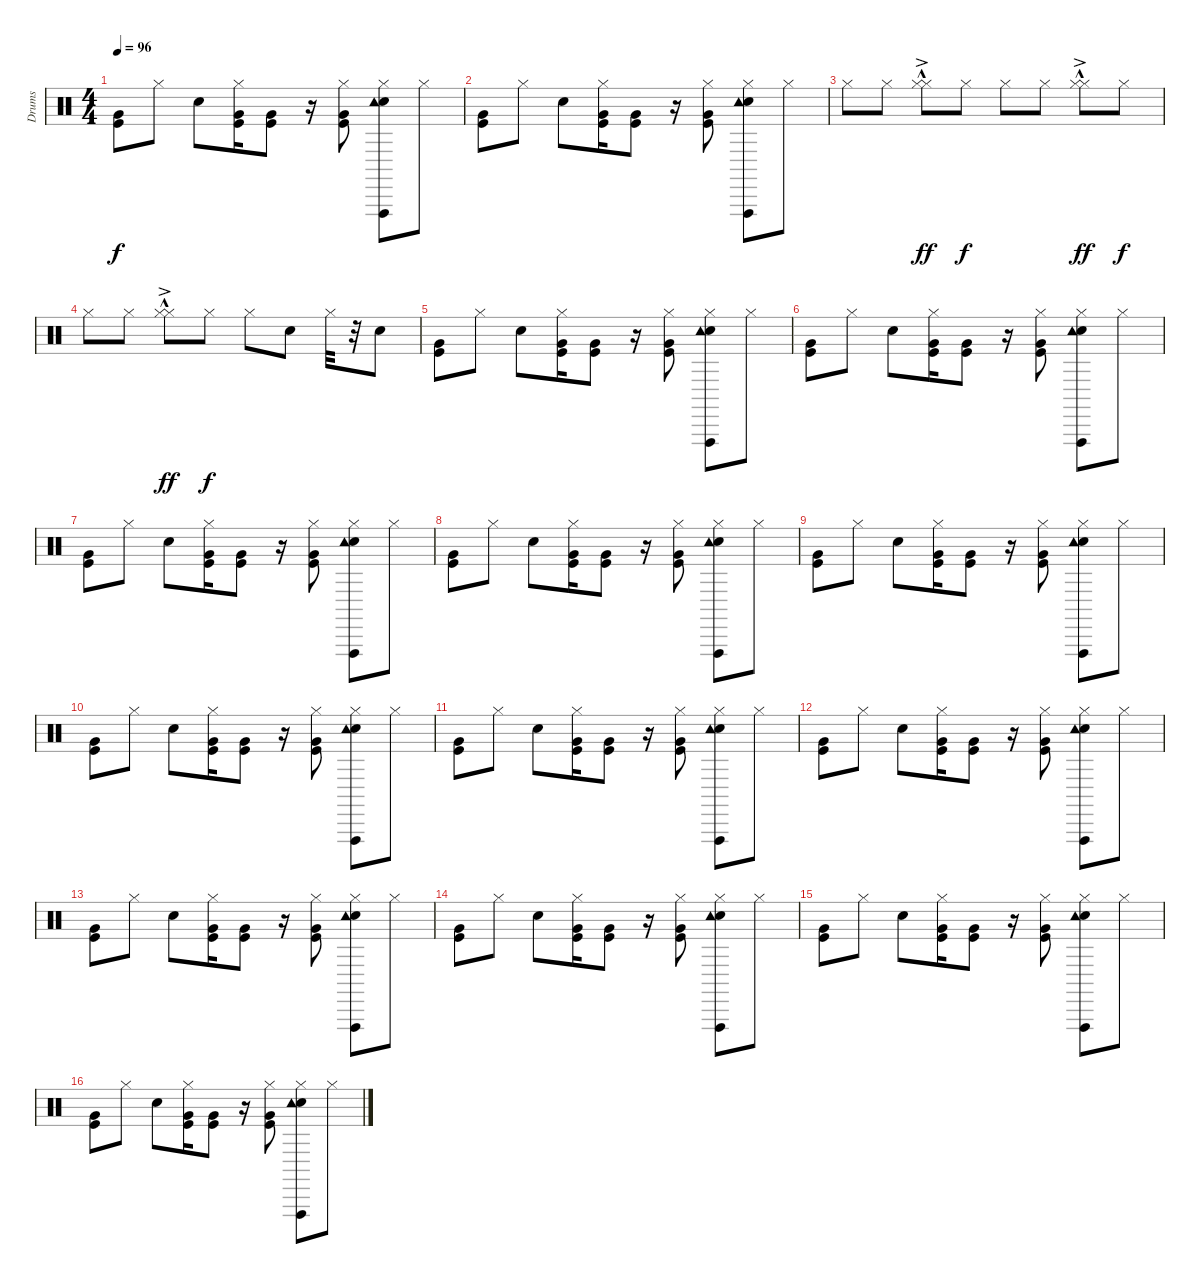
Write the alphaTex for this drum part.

\track ("Drums" "Drums") {instrument percussion}
\staff {score}
\articulation defaults
\ts (4 4)
\tempo 96
\clef neutral
\ks c
("Kick (hit)" "Very Low Tom (hit)").8{dy f} "Hi-Hat (closed)".8 "Snare (hit) 2".8 ("Hi-Hat (closed)" "Kick (hit)" "Very Low Tom (hit)").16 ("Kick (hit)" "Very Low Tom (hit)").8 r.16 ("Hi-Hat (closed)" "Kick (hit)" "Very Low Tom (hit)").8 ("Hi-Hat (closed)" "Vibraslap (hit)" "Snare (hit) 2" "Tambourine (hit)").8 "Hi-Hat (closed)".8 |
("Kick (hit)" "Very Low Tom (hit)").8 "Hi-Hat (closed)".8 "Snare (hit) 2".8 ("Hi-Hat (closed)" "Kick (hit)" "Very Low Tom (hit)").16 ("Kick (hit)" "Very Low Tom (hit)").8 r.16 ("Hi-Hat (closed)" "Kick (hit)" "Very Low Tom (hit)").8 ("Hi-Hat (closed)" "Vibraslap (hit)" "Snare (hit) 2" "Tambourine (hit)").8 "Hi-Hat (closed)".8 |
"Hi-Hat (closed)".8 "Hi-Hat (closed)".8 ("Hi-Hat (closed)"{hac} "Hi-Hat (closed)"{ac}).8{dy ff} "Hi-Hat (closed)".8{dy f} "Hi-Hat (closed)".8 "Hi-Hat (closed)".8 ("Hi-Hat (closed)"{hac} "Hi-Hat (closed)"{ac}).8{dy ff} "Hi-Hat (closed)".8{dy f} |
"Hi-Hat (closed)".8 "Hi-Hat (closed)".8 ("Hi-Hat (closed)"{hac} "Hi-Hat (closed)"{ac}).8{dy ff} "Hi-Hat (closed)".8{dy f} "Hi-Hat (closed)".8 "Electric Snare (hit)".8 "Hi-Hat (closed)".32 r.32 "Electric Snare (hit)".8 |
("Kick (hit)" "Very Low Tom (hit)").8 "Hi-Hat (closed)".8 "Snare (hit) 2".8 ("Hi-Hat (closed)" "Kick (hit)" "Very Low Tom (hit)").16 ("Kick (hit)" "Very Low Tom (hit)").8 r.16 ("Hi-Hat (closed)" "Kick (hit)" "Very Low Tom (hit)").8 ("Hi-Hat (closed)" "Vibraslap (hit)" "Snare (hit) 2" "Tambourine (hit)").8 "Hi-Hat (closed)".8 |
("Kick (hit)" "Very Low Tom (hit)").8 "Hi-Hat (closed)".8 "Snare (hit) 2".8 ("Hi-Hat (closed)" "Kick (hit)" "Very Low Tom (hit)").16 ("Kick (hit)" "Very Low Tom (hit)").8 r.16 ("Hi-Hat (closed)" "Kick (hit)" "Very Low Tom (hit)").8 ("Hi-Hat (closed)" "Vibraslap (hit)" "Snare (hit) 2" "Tambourine (hit)").8 "Hi-Hat (closed)".8 |
("Kick (hit)" "Very Low Tom (hit)").8 "Hi-Hat (closed)".8 "Snare (hit) 2".8 ("Hi-Hat (closed)" "Kick (hit)" "Very Low Tom (hit)").16 ("Kick (hit)" "Very Low Tom (hit)").8 r.16 ("Hi-Hat (closed)" "Kick (hit)" "Very Low Tom (hit)").8 ("Hi-Hat (closed)" "Vibraslap (hit)" "Snare (hit) 2" "Tambourine (hit)").8 "Hi-Hat (closed)".8 |
("Kick (hit)" "Very Low Tom (hit)").8 "Hi-Hat (closed)".8 "Snare (hit) 2".8 ("Hi-Hat (closed)" "Kick (hit)" "Very Low Tom (hit)").16 ("Kick (hit)" "Very Low Tom (hit)").8 r.16 ("Hi-Hat (closed)" "Kick (hit)" "Very Low Tom (hit)").8 ("Hi-Hat (closed)" "Vibraslap (hit)" "Snare (hit) 2" "Tambourine (hit)").8 "Hi-Hat (closed)".8 |
("Kick (hit)" "Very Low Tom (hit)").8 "Hi-Hat (closed)".8 "Snare (hit) 2".8 ("Hi-Hat (closed)" "Kick (hit)" "Very Low Tom (hit)").16 ("Kick (hit)" "Very Low Tom (hit)").8 r.16 ("Hi-Hat (closed)" "Kick (hit)" "Very Low Tom (hit)").8 ("Hi-Hat (closed)" "Vibraslap (hit)" "Snare (hit) 2" "Tambourine (hit)").8 "Hi-Hat (closed)".8 |
("Kick (hit)" "Very Low Tom (hit)").8 "Hi-Hat (closed)".8 "Snare (hit) 2".8 ("Hi-Hat (closed)" "Kick (hit)" "Very Low Tom (hit)").16 ("Kick (hit)" "Very Low Tom (hit)").8 r.16 ("Hi-Hat (closed)" "Kick (hit)" "Very Low Tom (hit)").8 ("Hi-Hat (closed)" "Vibraslap (hit)" "Snare (hit) 2" "Tambourine (hit)").8 "Hi-Hat (closed)".8 |
("Kick (hit)" "Very Low Tom (hit)").8 "Hi-Hat (closed)".8 "Snare (hit) 2".8 ("Hi-Hat (closed)" "Kick (hit)" "Very Low Tom (hit)").16 ("Kick (hit)" "Very Low Tom (hit)").8 r.16 ("Hi-Hat (closed)" "Kick (hit)" "Very Low Tom (hit)").8 ("Hi-Hat (closed)" "Vibraslap (hit)" "Snare (hit) 2" "Tambourine (hit)").8 "Hi-Hat (closed)".8 |
("Kick (hit)" "Very Low Tom (hit)").8 "Hi-Hat (closed)".8 "Snare (hit) 2".8 ("Hi-Hat (closed)" "Kick (hit)" "Very Low Tom (hit)").16 ("Kick (hit)" "Very Low Tom (hit)").8 r.16 ("Hi-Hat (closed)" "Kick (hit)" "Very Low Tom (hit)").8 ("Hi-Hat (closed)" "Vibraslap (hit)" "Snare (hit) 2" "Tambourine (hit)").8 "Hi-Hat (closed)".8 |
("Kick (hit)" "Very Low Tom (hit)").8 "Hi-Hat (closed)".8 "Snare (hit) 2".8 ("Hi-Hat (closed)" "Kick (hit)" "Very Low Tom (hit)").16 ("Kick (hit)" "Very Low Tom (hit)").8 r.16 ("Hi-Hat (closed)" "Kick (hit)" "Very Low Tom (hit)").8 ("Hi-Hat (closed)" "Vibraslap (hit)" "Snare (hit) 2" "Tambourine (hit)").8 "Hi-Hat (closed)".8 |
("Kick (hit)" "Very Low Tom (hit)").8 "Hi-Hat (closed)".8 "Snare (hit) 2".8 ("Hi-Hat (closed)" "Kick (hit)" "Very Low Tom (hit)").16 ("Kick (hit)" "Very Low Tom (hit)").8 r.16 ("Hi-Hat (closed)" "Kick (hit)" "Very Low Tom (hit)").8 ("Hi-Hat (closed)" "Vibraslap (hit)" "Snare (hit) 2" "Tambourine (hit)").8 "Hi-Hat (closed)".8 |
("Kick (hit)" "Very Low Tom (hit)").8 "Hi-Hat (closed)".8 "Snare (hit) 2".8 ("Hi-Hat (closed)" "Kick (hit)" "Very Low Tom (hit)").16 ("Kick (hit)" "Very Low Tom (hit)").8 r.16 ("Hi-Hat (closed)" "Kick (hit)" "Very Low Tom (hit)").8 ("Hi-Hat (closed)" "Vibraslap (hit)" "Snare (hit) 2" "Tambourine (hit)").8 "Hi-Hat (closed)".8 |
("Kick (hit)" "Very Low Tom (hit)").8 "Hi-Hat (closed)".8 "Snare (hit) 2".8 ("Hi-Hat (closed)" "Kick (hit)" "Very Low Tom (hit)").16 ("Kick (hit)" "Very Low Tom (hit)").8 r.16 ("Hi-Hat (closed)" "Kick (hit)" "Very Low Tom (hit)").8 ("Hi-Hat (closed)" "Vibraslap (hit)" "Snare (hit) 2" "Tambourine (hit)").8 "Hi-Hat (closed)".8
